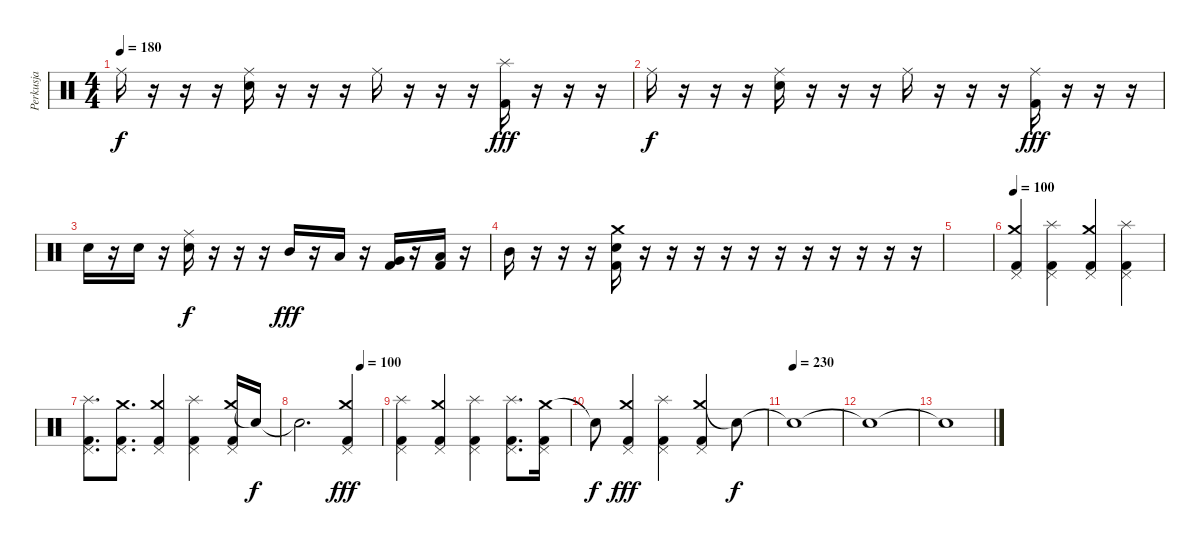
\track ("Perkusja" "Perkusja") {instrument percussion}
\staff {score}
\articulation defaults
\ts (4 4)
\tempo 180
\clef neutral
\ks c "Ride (middle)".16{dy f}
r.16 r.16 r.16 ("Snare (hit) 2" "Ride (middle)").16 r.16 r.16 r.16 "Ride (middle)".16 r.16 r.16 r.16 ("Splash (hit)" "Kick (hit) 2").16{dy fff} r.16 r.16 r.16 |
"Ride (middle)".16{dy f} r.16 r.16 r.16 ("Snare (hit) 2" "Ride (middle)").16 r.16 r.16 r.16 "Ride (middle)".16 r.16 r.16 r.16 ("Ride (middle)" "Kick (hit) 2").16{dy fff} r.16 r.16 r.16 |
"Snare (hit) 2".16 r.16 "Snare (hit) 2".16 r.16 ("Snare (hit) 2" "Ride (middle)").16{dy f} r.16 r.16 r.16 "Mid Tom (hit)".16{dy fff} r.16 "Low Tom (hit)".16 r.16 ("Very Low Tom (hit)" "Kick (hit) 2").16 r.16 ("Low Tom (hit)" "Kick (hit) 2").16 r.16 |
"Mid Tom (hit)".16 r.16 r.16 r.16 ("Snare (hit) 2" "Crash medium (hit)" "Kick (hit) 2").16 r.16 r.16 r.16 r.16 r.16 r.16 r.16 r.16 r.16 r.16 r.16 |
|
\tempo 100
("Crash medium (hit)" "Pedal Hi-Hat (hit)" "Kick (hit) 2").4 ("Splash (hit)" "Pedal Hi-Hat (hit)" "Kick (hit) 2").4 ("Crash medium (hit)" "Pedal Hi-Hat (hit)" "Kick (hit) 2").4 ("Splash (hit)" "Pedal Hi-Hat (hit)" "Kick (hit) 2").4 |
("Splash (hit)" "Pedal Hi-Hat (hit)" "Kick (hit) 2").8{d} ("Crash medium (hit)" "Pedal Hi-Hat (hit)" "Kick (hit) 2").8{d} ("Crash medium (hit)" "Pedal Hi-Hat (hit)" "Kick (hit) 2").4 ("Splash (hit)" "Pedal Hi-Hat (hit)" "Kick (hit) 2").4 ("Crash medium (hit)" "Pedal Hi-Hat (hit)" "Kick (hit) 2").16 "Snare (hit)"{t}.16{dy f} |
\tempo (100 0.75)
"Snare (hit)"{t}.2{d} ("Crash medium (hit)" "Pedal Hi-Hat (hit)" "Kick (hit) 2").4{dy fff} |
("Splash (hit)" "Pedal Hi-Hat (hit)" "Kick (hit) 2").4 ("Crash medium (hit)" "Pedal Hi-Hat (hit)" "Kick (hit) 2").4 ("Splash (hit)" "Pedal Hi-Hat (hit)" "Kick (hit) 2").4 ("Splash (hit)" "Pedal Hi-Hat (hit)" "Kick (hit) 2").8{d} ("Crash medium (hit)" "Pedal Hi-Hat (hit)" "Kick (hit) 2").16 |
"Snare (hit)"{t}.8{dy f} ("Crash medium (hit)" "Pedal Hi-Hat (hit)" "Kick (hit) 2").4{dy fff} ("Splash (hit)" "Pedal Hi-Hat (hit)" "Kick (hit) 2").4 ("Crash medium (hit)" "Pedal Hi-Hat (hit)" "Kick (hit) 2").4 "Snare (hit)"{t}.8{dy f} |
\tempo (230)
"Snare (hit)"{t}.1 |
"Snare (hit)"{t}.1 |
"Snare (hit)"{t}.1
